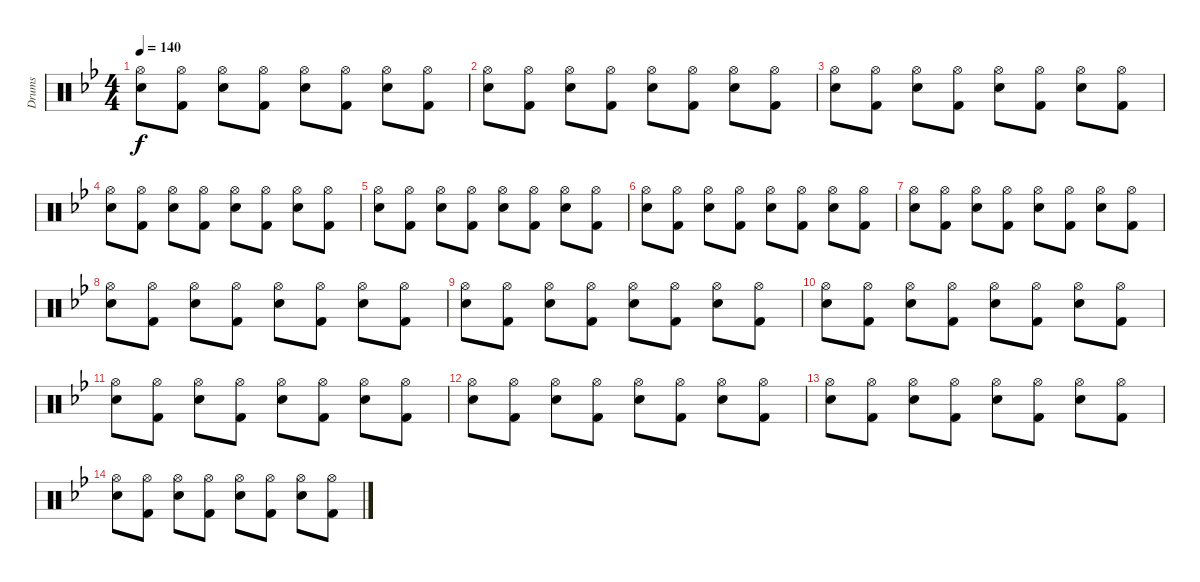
\track ("Drums" "Drums") {instrument percussion}
\staff {score}
\articulation defaults
\ts (4 4)
\tempo 140
\clef neutral
\ks bb
("Hi-Hat (open)" "Snare (hit) 2").8{dy f} ("Hi-Hat (open)" "Kick (hit) 2").8 ("Hi-Hat (open)" "Snare (hit) 2").8 ("Hi-Hat (open)" "Kick (hit) 2").8 ("Hi-Hat (open)" "Snare (hit) 2").8 ("Hi-Hat (open)" "Kick (hit) 2").8 ("Hi-Hat (open)" "Snare (hit) 2").8 ("Hi-Hat (open)" "Kick (hit) 2").8 |
("Hi-Hat (open)" "Snare (hit) 2").8 ("Hi-Hat (open)" "Kick (hit) 2").8 ("Hi-Hat (open)" "Snare (hit) 2").8 ("Hi-Hat (open)" "Kick (hit) 2").8 ("Hi-Hat (open)" "Snare (hit) 2").8 ("Hi-Hat (open)" "Kick (hit) 2").8 ("Hi-Hat (open)" "Snare (hit) 2").8 ("Hi-Hat (open)" "Kick (hit) 2").8 |
("Hi-Hat (open)" "Snare (hit) 2").8 ("Hi-Hat (open)" "Kick (hit) 2").8 ("Hi-Hat (open)" "Snare (hit) 2").8 ("Hi-Hat (open)" "Kick (hit) 2").8 ("Hi-Hat (open)" "Snare (hit) 2").8 ("Hi-Hat (open)" "Kick (hit) 2").8 ("Hi-Hat (open)" "Snare (hit) 2").8 ("Hi-Hat (open)" "Kick (hit) 2").8 |
("Hi-Hat (open)" "Snare (hit) 2").8 ("Hi-Hat (open)" "Kick (hit) 2").8 ("Hi-Hat (open)" "Snare (hit) 2").8 ("Hi-Hat (open)" "Kick (hit) 2").8 ("Hi-Hat (open)" "Snare (hit) 2").8 ("Hi-Hat (open)" "Kick (hit) 2").8 ("Hi-Hat (open)" "Snare (hit) 2").8 ("Hi-Hat (open)" "Kick (hit) 2").8 |
("Hi-Hat (open)" "Snare (hit) 2").8 ("Hi-Hat (open)" "Kick (hit) 2").8 ("Hi-Hat (open)" "Snare (hit) 2").8 ("Hi-Hat (open)" "Kick (hit) 2").8 ("Hi-Hat (open)" "Snare (hit) 2").8 ("Hi-Hat (open)" "Kick (hit) 2").8 ("Hi-Hat (open)" "Snare (hit) 2").8 ("Hi-Hat (open)" "Kick (hit) 2").8 |
("Hi-Hat (open)" "Snare (hit) 2").8 ("Hi-Hat (open)" "Kick (hit) 2").8 ("Hi-Hat (open)" "Snare (hit) 2").8 ("Hi-Hat (open)" "Kick (hit) 2").8 ("Hi-Hat (open)" "Snare (hit) 2").8 ("Hi-Hat (open)" "Kick (hit) 2").8 ("Hi-Hat (open)" "Snare (hit) 2").8 ("Hi-Hat (open)" "Kick (hit) 2").8 |
("Hi-Hat (open)" "Snare (hit) 2").8 ("Hi-Hat (open)" "Kick (hit) 2").8 ("Hi-Hat (open)" "Snare (hit) 2").8 ("Hi-Hat (open)" "Kick (hit) 2").8 ("Hi-Hat (open)" "Snare (hit) 2").8 ("Hi-Hat (open)" "Kick (hit) 2").8 ("Hi-Hat (open)" "Snare (hit) 2").8 ("Hi-Hat (open)" "Kick (hit) 2").8 |
("Hi-Hat (open)" "Snare (hit) 2").8 ("Hi-Hat (open)" "Kick (hit) 2").8 ("Hi-Hat (open)" "Snare (hit) 2").8 ("Hi-Hat (open)" "Kick (hit) 2").8 ("Hi-Hat (open)" "Snare (hit) 2").8 ("Hi-Hat (open)" "Kick (hit) 2").8 ("Hi-Hat (open)" "Snare (hit) 2").8 ("Hi-Hat (open)" "Kick (hit) 2").8 |
("Hi-Hat (open)" "Snare (hit) 2").8 ("Hi-Hat (open)" "Kick (hit) 2").8 ("Hi-Hat (open)" "Snare (hit) 2").8 ("Hi-Hat (open)" "Kick (hit) 2").8 ("Hi-Hat (open)" "Snare (hit) 2").8 ("Hi-Hat (open)" "Kick (hit) 2").8 ("Hi-Hat (open)" "Snare (hit) 2").8 ("Hi-Hat (open)" "Kick (hit) 2").8 |
("Hi-Hat (open)" "Snare (hit) 2").8 ("Hi-Hat (open)" "Kick (hit) 2").8 ("Hi-Hat (open)" "Snare (hit) 2").8 ("Hi-Hat (open)" "Kick (hit) 2").8 ("Hi-Hat (open)" "Snare (hit) 2").8 ("Hi-Hat (open)" "Kick (hit) 2").8 ("Hi-Hat (open)" "Snare (hit) 2").8 ("Hi-Hat (open)" "Kick (hit) 2").8 |
("Hi-Hat (open)" "Snare (hit) 2").8 ("Hi-Hat (open)" "Kick (hit) 2").8 ("Hi-Hat (open)" "Snare (hit) 2").8 ("Hi-Hat (open)" "Kick (hit) 2").8 ("Hi-Hat (open)" "Snare (hit) 2").8 ("Hi-Hat (open)" "Kick (hit) 2").8 ("Hi-Hat (open)" "Snare (hit) 2").8 ("Hi-Hat (open)" "Kick (hit) 2").8 |
("Hi-Hat (open)" "Snare (hit) 2").8 ("Hi-Hat (open)" "Kick (hit) 2").8 ("Hi-Hat (open)" "Snare (hit) 2").8 ("Hi-Hat (open)" "Kick (hit) 2").8 ("Hi-Hat (open)" "Snare (hit) 2").8 ("Hi-Hat (open)" "Kick (hit) 2").8 ("Hi-Hat (open)" "Snare (hit) 2").8 ("Hi-Hat (open)" "Kick (hit) 2").8 |
("Hi-Hat (open)" "Snare (hit) 2").8 ("Hi-Hat (open)" "Kick (hit) 2").8 ("Hi-Hat (open)" "Snare (hit) 2").8 ("Hi-Hat (open)" "Kick (hit) 2").8 ("Hi-Hat (open)" "Snare (hit) 2").8 ("Hi-Hat (open)" "Kick (hit) 2").8 ("Hi-Hat (open)" "Snare (hit) 2").8 ("Hi-Hat (open)" "Kick (hit) 2").8 |
("Hi-Hat (open)" "Snare (hit) 2").8 ("Hi-Hat (open)" "Kick (hit) 2").8 ("Hi-Hat (open)" "Snare (hit) 2").8 ("Hi-Hat (open)" "Kick (hit) 2").8 ("Hi-Hat (open)" "Snare (hit) 2").8 ("Hi-Hat (open)" "Kick (hit) 2").8 ("Hi-Hat (open)" "Snare (hit) 2").8 ("Hi-Hat (open)" "Kick (hit) 2").8
